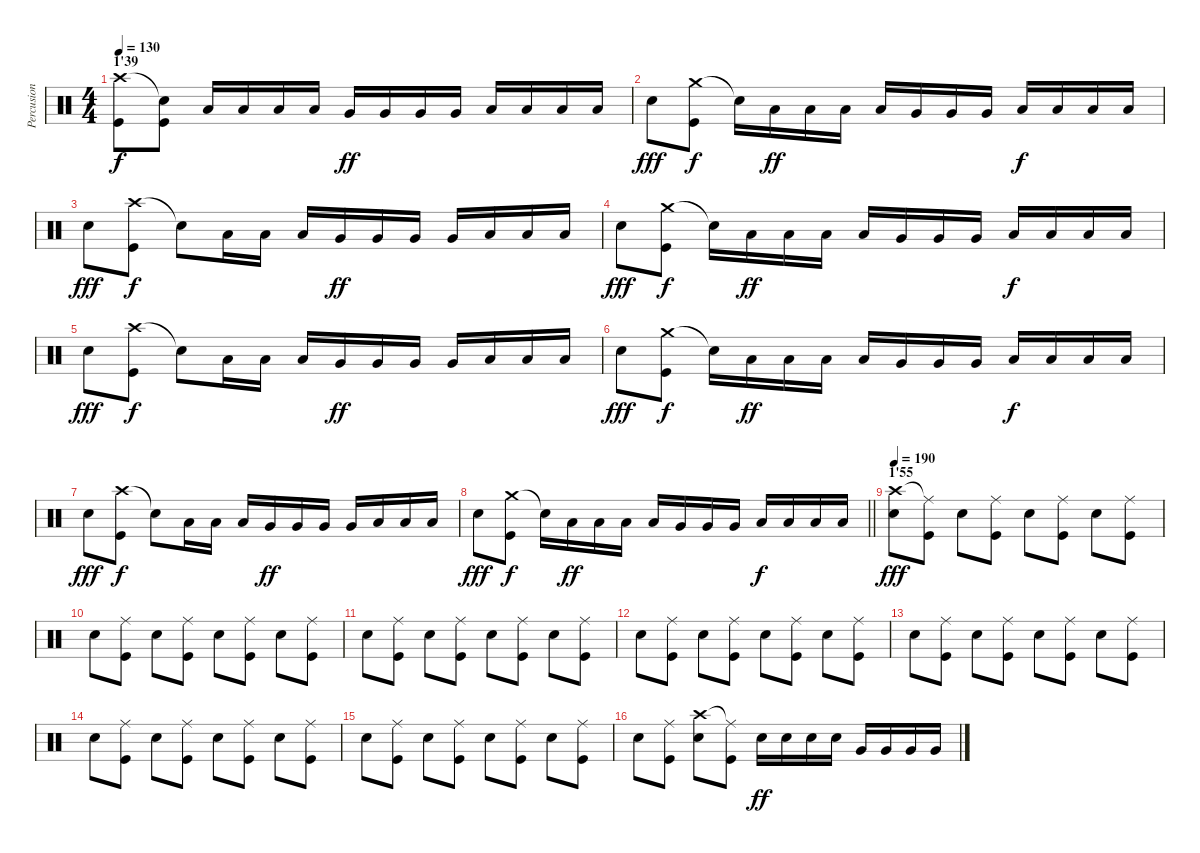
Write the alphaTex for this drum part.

\track ("Percusion" "Percusion") {instrument percussion}
\staff {score}
\articulation defaults
\ts (4 4)
\section ("" "1'39")
\tempo 130
\clef neutral
\ks c
("Crash high (hit)" "Kick (hit)").8{dy f} ("Snare (hit)"{t} "Kick (hit)").8 "Low Tom (hit)".16 "Low Tom (hit)".16 "Low Tom (hit)".16 "Low Tom (hit)".16 "Very Low Tom (hit)".16{dy ff} "Very Low Tom (hit)".16 "Very Low Tom (hit)".16 "Very Low Tom (hit)".16 "Low Floor Tom (hit)".16 "Low Floor Tom (hit)".16 "Low Floor Tom (hit)".16 "Low Floor Tom (hit)".16 |
"Electric Snare (hit)".8{dy fff} ("Crash medium (hit)" "Kick (hit)").8{dy f} "Snare (hit)"{t}.16 "Low Floor Tom (hit)".16{dy ff} "Low Floor Tom (hit)".16 "Low Floor Tom (hit)".16 "Low Floor Tom (hit)".16 "Very Low Tom (hit)".16 "Very Low Tom (hit)".16 "Very Low Tom (hit)".16 "Low Tom (hit)".16{dy f} "Low Tom (hit)".16 "Low Tom (hit)".16 "Low Tom (hit)".16 |
"Electric Snare (hit)".8{dy fff} ("Crash high (hit)" "Kick (hit)").8{dy f} "Snare (hit)"{t}.8 "Low Tom (hit)".16 "Low Tom (hit)".16 "Low Tom (hit)".16 "Very Low Tom (hit)".16{dy ff} "Very Low Tom (hit)".16 "Very Low Tom (hit)".16 "Very Low Tom (hit)".16 "Low Floor Tom (hit)".16 "Low Floor Tom (hit)".16 "Low Floor Tom (hit)".16 |
"Electric Snare (hit)".8{dy fff} ("Crash medium (hit)" "Kick (hit)").8{dy f} "Snare (hit)"{t}.16 "Low Floor Tom (hit)".16{dy ff} "Low Floor Tom (hit)".16 "Low Floor Tom (hit)".16 "Low Floor Tom (hit)".16 "Very Low Tom (hit)".16 "Very Low Tom (hit)".16 "Very Low Tom (hit)".16 "Low Tom (hit)".16{dy f} "Low Tom (hit)".16 "Low Tom (hit)".16 "Low Tom (hit)".16 |
"Electric Snare (hit)".8{dy fff} ("Crash high (hit)" "Kick (hit)").8{dy f} "Snare (hit)"{t}.8 "Low Tom (hit)".16 "Low Tom (hit)".16 "Low Tom (hit)".16 "Very Low Tom (hit)".16{dy ff} "Very Low Tom (hit)".16 "Very Low Tom (hit)".16 "Very Low Tom (hit)".16 "Low Floor Tom (hit)".16 "Low Floor Tom (hit)".16 "Low Floor Tom (hit)".16 |
"Electric Snare (hit)".8{dy fff} ("Crash medium (hit)" "Kick (hit)").8{dy f} "Snare (hit)"{t}.16 "Low Floor Tom (hit)".16{dy ff} "Low Floor Tom (hit)".16 "Low Floor Tom (hit)".16 "Low Floor Tom (hit)".16 "Very Low Tom (hit)".16 "Very Low Tom (hit)".16 "Very Low Tom (hit)".16 "Low Tom (hit)".16{dy f} "Low Tom (hit)".16 "Low Tom (hit)".16 "Low Tom (hit)".16 |
"Electric Snare (hit)".8{dy fff} ("Crash high (hit)" "Kick (hit)").8{dy f} "Snare (hit)"{t}.8 "Low Tom (hit)".16 "Low Tom (hit)".16 "Low Tom (hit)".16 "Very Low Tom (hit)".16{dy ff} "Very Low Tom (hit)".16 "Very Low Tom (hit)".16 "Very Low Tom (hit)".16 "Low Floor Tom (hit)".16 "Low Floor Tom (hit)".16 "Low Floor Tom (hit)".16 |
\barLineRight lightlight "Electric Snare (hit)".8{dy fff}
("Crash medium (hit)" "Kick (hit)").8{dy f} "Snare (hit)"{t}.16 "Low Floor Tom (hit)".16{dy ff} "Low Floor Tom (hit)".16 "Low Floor Tom (hit)".16 "Low Floor Tom (hit)".16 "Very Low Tom (hit)".16 "Very Low Tom (hit)".16 "Very Low Tom (hit)".16 "Low Tom (hit)".16{dy f} "Low Tom (hit)".16 "Low Tom (hit)".16 "Low Tom (hit)".16 |
\section ("" "1'55")
\tempo 190
("Crash high (hit)" "Electric Snare (hit)").8{dy fff} ("Ride (middle)"{t} "Kick (hit)").8 "Electric Snare (hit)".8 ("Ride (middle)" "Kick (hit)").8 "Electric Snare (hit)".8 ("Ride (middle)" "Kick (hit)").8 "Electric Snare (hit)".8 ("Ride (middle)" "Kick (hit)").8 |
"Electric Snare (hit)".8 ("Ride (middle)" "Kick (hit)").8 "Electric Snare (hit)".8 ("Ride (middle)" "Kick (hit)").8 "Electric Snare (hit)".8 ("Ride (middle)" "Kick (hit)").8 "Electric Snare (hit)".8 ("Ride (middle)" "Kick (hit)").8 |
"Electric Snare (hit)".8 ("Ride (middle)" "Kick (hit)").8 "Electric Snare (hit)".8 ("Ride (middle)" "Kick (hit)").8 "Electric Snare (hit)".8 ("Ride (middle)" "Kick (hit)").8 "Electric Snare (hit)".8 ("Ride (middle)" "Kick (hit)").8 |
"Electric Snare (hit)".8 ("Ride (middle)" "Kick (hit)").8 "Electric Snare (hit)".8 ("Ride (middle)" "Kick (hit)").8 "Electric Snare (hit)".8 ("Ride (middle)" "Kick (hit)").8 "Electric Snare (hit)".8 ("Ride (middle)" "Kick (hit)").8 |
"Electric Snare (hit)".8 ("Ride (middle)" "Kick (hit)").8 "Electric Snare (hit)".8 ("Ride (middle)" "Kick (hit)").8 "Electric Snare (hit)".8 ("Ride (middle)" "Kick (hit)").8 "Electric Snare (hit)".8 ("Ride (middle)" "Kick (hit)").8 |
"Electric Snare (hit)".8 ("Ride (middle)" "Kick (hit)").8 "Electric Snare (hit)".8 ("Ride (middle)" "Kick (hit)").8 "Electric Snare (hit)".8 ("Ride (middle)" "Kick (hit)").8 "Electric Snare (hit)".8 ("Ride (middle)" "Kick (hit)").8 |
"Electric Snare (hit)".8 ("Ride (middle)" "Kick (hit)").8 "Electric Snare (hit)".8 ("Ride (middle)" "Kick (hit)").8 "Electric Snare (hit)".8 ("Ride (middle)" "Kick (hit)").8 "Electric Snare (hit)".8 ("Ride (middle)" "Kick (hit)").8 |
"Electric Snare (hit)".8 ("Ride (middle)" "Kick (hit)").8 ("Crash high (hit)" "Electric Snare (hit)").8 ("Ride (middle)"{t} "Kick (hit)").8 "Electric Snare (hit)".16{dy ff} "Electric Snare (hit)".16 "Electric Snare (hit)".16 "Electric Snare (hit)".16 "Very Low Tom (hit)".16 "Very Low Tom (hit)".16 "Very Low Tom (hit)".16 "Very Low Tom (hit)".16
